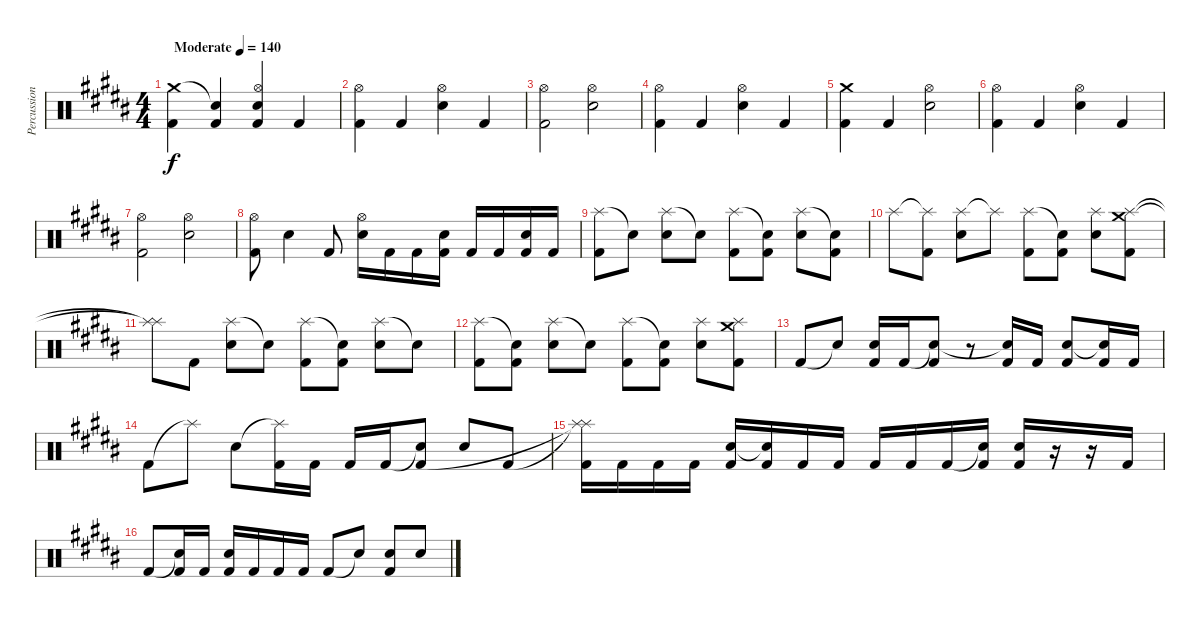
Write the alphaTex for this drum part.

\track ("Percussion" "Percussion") {instrument percussion}
\staff {score}
\articulation defaults
\ts (4 4)
\section ("" "")
\tempo (140 "Moderate")
\clef neutral
\ks b
("Crash medium (hit)" "Kick (hit) 2").4{dy f} ("Snare (hit)"{t} "Kick (hit) 2").4 ("Hi-Hat (open)" "Electric Snare (hit)" "Kick (hit) 2").4 "Kick (hit) 2".4 |
("Hi-Hat (open)" "Kick (hit) 2").4 "Kick (hit) 2".4 ("Hi-Hat (open)" "Electric Snare (hit)").4 "Kick (hit) 2".4 |
("Hi-Hat (open)" "Kick (hit) 2").2 ("Hi-Hat (open)" "Electric Snare (hit)").2 |
("Hi-Hat (open)" "Kick (hit) 2").4 "Kick (hit) 2".4 ("Hi-Hat (open)" "Electric Snare (hit)").4 "Kick (hit) 2".4 |
("Crash medium (hit)" "Kick (hit) 2").4 "Kick (hit) 2".4 ("Hi-Hat (open)" "Electric Snare (hit)").2 |
("Hi-Hat (open)" "Kick (hit) 2").4 "Kick (hit) 2".4 ("Hi-Hat (open)" "Electric Snare (hit)").4 "Kick (hit) 2".4 |
("Hi-Hat (open)" "Kick (hit) 2").2 ("Hi-Hat (open)" "Electric Snare (hit)").2 |
("Hi-Hat (open)" "Kick (hit) 2").8 "Electric Snare (hit)".4 "Kick (hit) 2".8 ("Hi-Hat (open)" "Electric Snare (hit)").16 "Kick (hit) 2".16 "Kick (hit) 2".16 ("Electric Snare (hit)" "Kick (hit) 2").16 "Kick (hit) 2".16 "Kick (hit) 2".16 ("Electric Snare (hit)" "Kick (hit) 2").16 "Kick (hit) 2".16 |
("Splash (hit)" "Kick (hit) 2").8 "Snare (hit)"{t}.8 ("Splash (hit)" "Electric Snare (hit)").8 "Snare (hit)"{t}.8 ("Splash (hit)" "Kick (hit) 2").8 ("Snare (hit)"{t} "Kick (hit) 2").8 ("Splash (hit)" "Electric Snare (hit)").8 ("Snare (hit)"{t} "Kick (hit) 2").8 |
"Splash (hit)".8 ("Splash (hit)"{t} "Kick (hit) 2").8 ("Splash (hit)" "Electric Snare (hit)").8 "Splash (hit)"{t}.8 ("Splash (hit)" "Kick (hit) 2").8 ("Snare (hit)"{t} "Kick (hit) 2").8 ("Splash (hit)" "Electric Snare (hit)").8 ("Crash medium (hit)" "Splash (hit)" "Kick (hit) 2").8 |
("Splash (hit)"{t} "Splash (hit)"{t}).8 "Kick (hit) 2".8 ("Splash (hit)" "Electric Snare (hit)").8 "Snare (hit)"{t}.8 ("Splash (hit)" "Kick (hit) 2").8 ("Snare (hit)"{t} "Kick (hit) 2").8 ("Splash (hit)" "Electric Snare (hit)").8 "Snare (hit)"{t}.8 |
("Splash (hit)" "Kick (hit) 2").8 ("Snare (hit)"{t} "Kick (hit) 2").8 ("Splash (hit)" "Electric Snare (hit)").8 "Snare (hit)"{t}.8 ("Splash (hit)" "Kick (hit) 2").8 ("Snare (hit)"{t} "Kick (hit) 2").8 ("Splash (hit)" "Electric Snare (hit)").8 ("Crash medium (hit)" "Splash (hit)" "Kick (hit) 2").8 |
"Kick (hit) 2".8 "Snare (hit)"{t}.8 ("Electric Snare (hit)" "Kick (hit) 2").16 "Kick (hit) 2".16 ("Snare (hit)"{t} "Kick (hit) 2").8 r.8 ("Snare (hit)"{t} "Kick (hit) 2").16 "Kick (hit) 2".16 ("Electric Snare (hit)" "Kick (hit) 2").8 ("Snare (hit)"{t} "Kick (hit) 2").16 "Kick (hit) 2".16 |
"Kick (hit) 2".8 "Splash (hit)"{t}.8 "Electric Snare (hit)".8 ("Splash (hit)"{t} "Kick (hit) 2").16 "Kick (hit) 2".16 "Kick (hit) 2".16 "Kick (hit) 2".16 ("Snare (hit)"{t} "Kick (hit) 2").8 "Electric Snare (hit)".8 "Kick (hit) 2".8 |
("Splash (hit)"{t} "Splash (hit)"{t} "Kick (hit) 2").16 "Kick (hit) 2".16 "Kick (hit) 2".16 "Kick (hit) 2".16 ("Electric Snare (hit)" "Kick (hit) 2").16 ("Snare (hit)"{t} "Kick (hit) 2").16 "Kick (hit) 2".16 "Kick (hit) 2".16 "Kick (hit) 2".16 "Kick (hit) 2".16 "Kick (hit) 2".16 ("Snare (hit)"{t} "Kick (hit) 2").16 ("Electric Snare (hit)" "Kick (hit) 2").16 r.16 r.16 "Kick (hit) 2".16 |
"Kick (hit) 2".8 ("Snare (hit)"{t} "Kick (hit) 2").16 "Kick (hit) 2".16 ("Electric Snare (hit)" "Kick (hit) 2").16 "Kick (hit) 2".16 "Kick (hit) 2".16 "Kick (hit) 2".16 "Kick (hit) 2".8 "Snare (hit)"{t}.8 ("Electric Snare (hit)" "Kick (hit) 2").8 "Electric Snare (hit)".8
